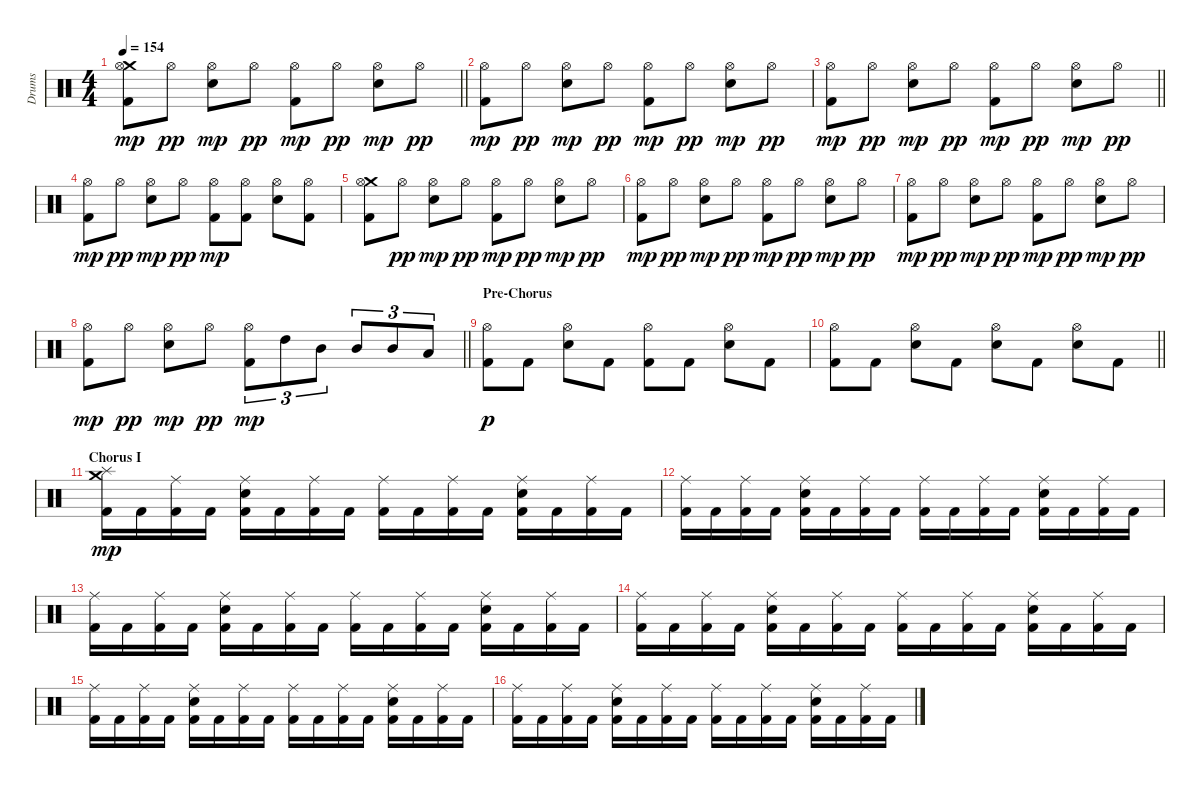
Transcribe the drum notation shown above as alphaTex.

\track ("Drums" "Drums") {instrument percussion}
\staff {score}
\articulation defaults
\ts (4 4)
\tempo 154
\clef neutral
\barLineRight lightlight
\ks c
("Crash medium (hit)" "Hi-Hat (open)" "Kick (hit) 2").8{dy mp} "Hi-Hat (open)".8{dy pp} ("Hi-Hat (open)" "Electric Snare (hit)").8{dy mp} "Hi-Hat (open)".8{dy pp} ("Hi-Hat (open)" "Kick (hit) 2").8{dy mp} "Hi-Hat (open)".8{dy pp} ("Hi-Hat (open)" "Electric Snare (hit)").8{dy mp} "Hi-Hat (open)".8{dy pp} |
("Hi-Hat (open)" "Kick (hit) 2").8{dy mp} "Hi-Hat (open)".8{dy pp} ("Hi-Hat (open)" "Electric Snare (hit)").8{dy mp} "Hi-Hat (open)".8{dy pp} ("Hi-Hat (open)" "Kick (hit) 2").8{dy mp} "Hi-Hat (open)".8{dy pp} ("Hi-Hat (open)" "Electric Snare (hit)").8{dy mp} "Hi-Hat (open)".8{dy pp} |
\barLineRight lightlight
("Hi-Hat (open)" "Kick (hit) 2").8{dy mp} "Hi-Hat (open)".8{dy pp} ("Hi-Hat (open)" "Electric Snare (hit)").8{dy mp} "Hi-Hat (open)".8{dy pp} ("Hi-Hat (open)" "Kick (hit) 2").8{dy mp} "Hi-Hat (open)".8{dy pp} ("Hi-Hat (open)" "Electric Snare (hit)").8{dy mp} "Hi-Hat (open)".8{dy pp} |
("Hi-Hat (open)" "Kick (hit) 2").8{dy mp} "Hi-Hat (open)".8{dy pp} ("Hi-Hat (open)" "Electric Snare (hit)").8{dy mp} "Hi-Hat (open)".8{dy pp} ("Hi-Hat (open)" "Kick (hit) 2").8{dy mp} ("Hi-Hat (open)" "Kick (hit) 2").8 ("Hi-Hat (open)" "Electric Snare (hit)").8 ("Hi-Hat (open)" "Kick (hit) 2").8 |
("Crash medium (hit)" "Hi-Hat (open)" "Kick (hit) 2").8 "Hi-Hat (open)".8{dy pp} ("Hi-Hat (open)" "Electric Snare (hit)").8{dy mp} "Hi-Hat (open)".8{dy pp} ("Hi-Hat (open)" "Kick (hit) 2").8{dy mp} "Hi-Hat (open)".8{dy pp} ("Hi-Hat (open)" "Electric Snare (hit)").8{dy mp} "Hi-Hat (open)".8{dy pp} |
("Hi-Hat (open)" "Kick (hit) 2").8{dy mp} "Hi-Hat (open)".8{dy pp} ("Hi-Hat (open)" "Electric Snare (hit)").8{dy mp} "Hi-Hat (open)".8{dy pp} ("Hi-Hat (open)" "Kick (hit) 2").8{dy mp} "Hi-Hat (open)".8{dy pp} ("Hi-Hat (open)" "Electric Snare (hit)").8{dy mp} "Hi-Hat (open)".8{dy pp} |
("Hi-Hat (open)" "Kick (hit) 2").8{dy mp} "Hi-Hat (open)".8{dy pp} ("Hi-Hat (open)" "Electric Snare (hit)").8{dy mp} "Hi-Hat (open)".8{dy pp} ("Hi-Hat (open)" "Kick (hit) 2").8{dy mp} "Hi-Hat (open)".8{dy pp} ("Hi-Hat (open)" "Electric Snare (hit)").8{dy mp} "Hi-Hat (open)".8{dy pp} |
\barLineRight lightlight
("Hi-Hat (open)" "Kick (hit) 2").8{dy mp} "Hi-Hat (open)".8{dy pp} ("Hi-Hat (open)" "Electric Snare (hit)").8{dy mp} "Hi-Hat (open)".8{dy pp} ("Hi-Hat (open)" "Kick (hit) 2").8{tu (3 2) dy mp} "High Tom (hit)".8{tu (3 2)} "Mid Tom (hit)".8{tu (3 2)} "Mid Tom (hit)".8{tu (3 2)} "Mid Tom (hit)".8{tu (3 2)} "Low Tom (hit)".8{tu (3 2)} |
\section ("" "Pre-Chorus")
("Hi-Hat (open)" "Kick (hit) 2").8{dy p} "Kick (hit) 2".8 ("Hi-Hat (open)" "Electric Snare (hit)").8 "Kick (hit) 2".8 ("Hi-Hat (open)" "Kick (hit) 2").8 "Kick (hit) 2".8 ("Hi-Hat (open)" "Electric Snare (hit)").8 "Kick (hit) 2".8 |
\barLineRight lightlight
("Hi-Hat (open)" "Kick (hit) 2").8 "Kick (hit) 2".8 ("Hi-Hat (open)" "Electric Snare (hit)").8 "Kick (hit) 2".8 ("Hi-Hat (open)" "Electric Snare (hit)").8 "Kick (hit) 2".8 ("Hi-Hat (open)" "Electric Snare (hit)").8 "Kick (hit) 2".8 |
\section ("" "Chorus I")
("Crash medium (hit)" "Splash (hit)" "Kick (hit) 2").16{dy mp} "Kick (hit) 2".16 ("Ride (middle)" "Kick (hit) 2").16 "Kick (hit) 2".16 ("Ride (middle)" "Electric Snare (hit)" "Kick (hit) 2").16 "Kick (hit) 2".16 ("Ride (middle)" "Kick (hit) 2").16 "Kick (hit) 2".16 ("Ride (middle)" "Kick (hit) 2").16 "Kick (hit) 2".16 ("Ride (middle)" "Kick (hit) 2").16 "Kick (hit) 2".16 ("Ride (middle)" "Electric Snare (hit)" "Kick (hit) 2").16 "Kick (hit) 2".16 ("Ride (middle)" "Kick (hit) 2").16 "Kick (hit) 2".16 |
("Ride (middle)" "Kick (hit) 2").16 "Kick (hit) 2".16 ("Ride (middle)" "Kick (hit) 2").16 "Kick (hit) 2".16 ("Ride (middle)" "Electric Snare (hit)" "Kick (hit) 2").16 "Kick (hit) 2".16 ("Ride (middle)" "Kick (hit) 2").16 "Kick (hit) 2".16 ("Ride (middle)" "Kick (hit) 2").16 "Kick (hit) 2".16 ("Ride (middle)" "Kick (hit) 2").16 "Kick (hit) 2".16 ("Ride (middle)" "Electric Snare (hit)" "Kick (hit) 2").16 "Kick (hit) 2".16 ("Ride (middle)" "Kick (hit) 2").16 "Kick (hit) 2".16 |
("Ride (middle)" "Kick (hit) 2").16 "Kick (hit) 2".16 ("Ride (middle)" "Kick (hit) 2").16 "Kick (hit) 2".16 ("Ride (middle)" "Electric Snare (hit)" "Kick (hit) 2").16 "Kick (hit) 2".16 ("Ride (middle)" "Kick (hit) 2").16 "Kick (hit) 2".16 ("Ride (middle)" "Kick (hit) 2").16 "Kick (hit) 2".16 ("Ride (middle)" "Kick (hit) 2").16 "Kick (hit) 2".16 ("Ride (middle)" "Electric Snare (hit)" "Kick (hit) 2").16 "Kick (hit) 2".16 ("Ride (middle)" "Kick (hit) 2").16 "Kick (hit) 2".16 |
("Ride (middle)" "Kick (hit) 2").16 "Kick (hit) 2".16 ("Ride (middle)" "Kick (hit) 2").16 "Kick (hit) 2".16 ("Ride (middle)" "Electric Snare (hit)" "Kick (hit) 2").16 "Kick (hit) 2".16 ("Ride (middle)" "Kick (hit) 2").16 "Kick (hit) 2".16 ("Ride (middle)" "Kick (hit) 2").16 "Kick (hit) 2".16 ("Ride (middle)" "Kick (hit) 2").16 "Kick (hit) 2".16 ("Ride (middle)" "Electric Snare (hit)" "Kick (hit) 2").16 "Kick (hit) 2".16 ("Ride (middle)" "Kick (hit) 2").16 "Kick (hit) 2".16 |
("Ride (middle)" "Kick (hit) 2").16 "Kick (hit) 2".16 ("Ride (middle)" "Kick (hit) 2").16 "Kick (hit) 2".16 ("Ride (middle)" "Electric Snare (hit)" "Kick (hit) 2").16 "Kick (hit) 2".16 ("Ride (middle)" "Kick (hit) 2").16 "Kick (hit) 2".16 ("Ride (middle)" "Kick (hit) 2").16 "Kick (hit) 2".16 ("Ride (middle)" "Kick (hit) 2").16 "Kick (hit) 2".16 ("Ride (middle)" "Electric Snare (hit)" "Kick (hit) 2").16 "Kick (hit) 2".16 ("Ride (middle)" "Kick (hit) 2").16 "Kick (hit) 2".16 |
("Ride (middle)" "Kick (hit) 2").16 "Kick (hit) 2".16 ("Ride (middle)" "Kick (hit) 2").16 "Kick (hit) 2".16 ("Ride (middle)" "Electric Snare (hit)" "Kick (hit) 2").16 "Kick (hit) 2".16 ("Ride (middle)" "Kick (hit) 2").16 "Kick (hit) 2".16 ("Ride (middle)" "Kick (hit) 2").16 "Kick (hit) 2".16 ("Ride (middle)" "Kick (hit) 2").16 "Kick (hit) 2".16 ("Ride (middle)" "Electric Snare (hit)" "Kick (hit) 2").16 "Kick (hit) 2".16 ("Ride (middle)" "Kick (hit) 2").16 "Kick (hit) 2".16
